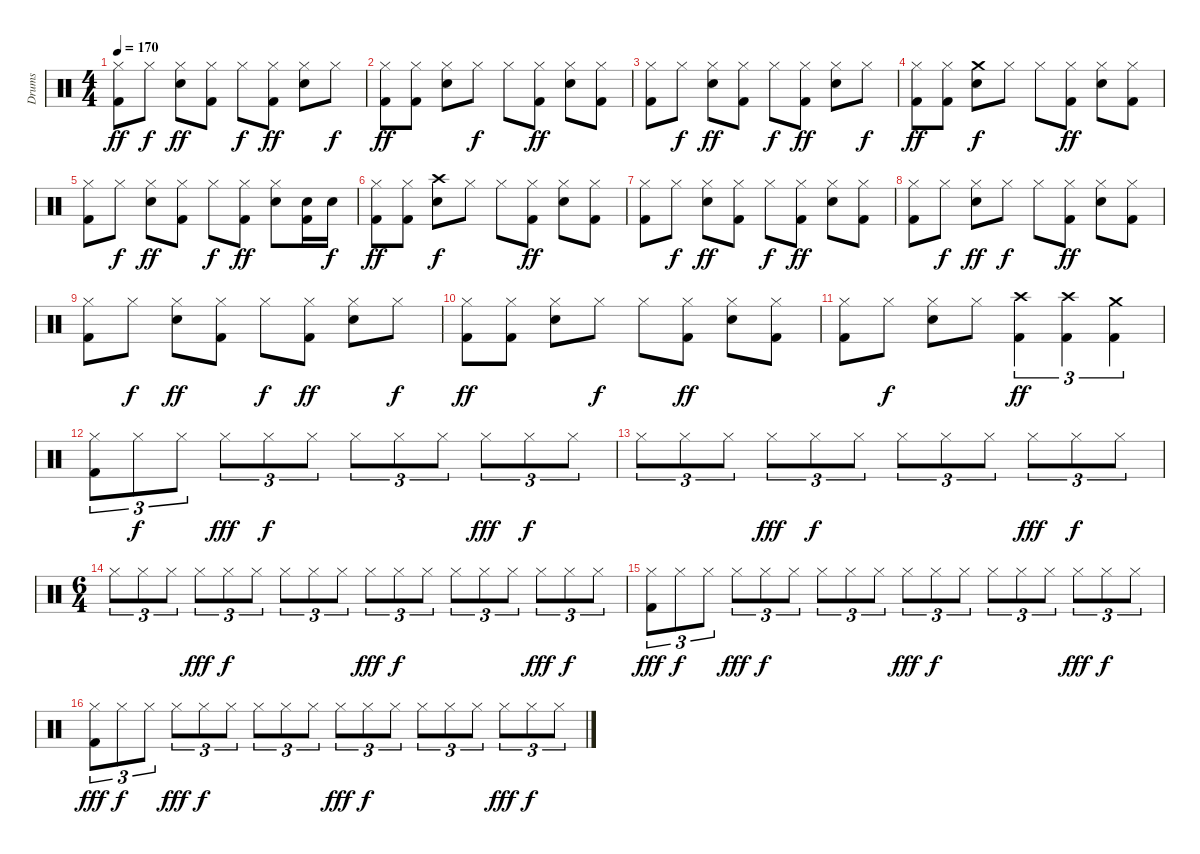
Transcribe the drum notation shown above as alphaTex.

\track ("Drums" "Drums") {instrument percussion}
\staff {score}
\articulation defaults
\ts (4 4)
\tempo 170
\clef neutral
\ks c
("Kick (hit) 2" "Hi-Hat (closed)").8{dy ff} "Hi-Hat (closed)".8{dy f} ("Snare (hit) 2" "Hi-Hat (closed)").8{dy ff} ("Kick (hit) 2" "Hi-Hat (closed)").8 "Hi-Hat (closed)".8{dy f} ("Kick (hit) 2" "Hi-Hat (closed)").8{dy ff} ("Snare (hit) 2" "Hi-Hat (closed)").8 "Hi-Hat (closed)".8{dy f} |
("Kick (hit) 2" "Hi-Hat (closed)").8{dy ff} ("Kick (hit) 2" "Hi-Hat (closed)").8 ("Snare (hit) 2" "Hi-Hat (closed)").8 "Hi-Hat (closed)".8{dy f} "Hi-Hat (closed)".8 ("Kick (hit) 2" "Hi-Hat (closed)").8{dy ff} ("Snare (hit) 2" "Hi-Hat (closed)").8 ("Kick (hit) 2" "Hi-Hat (closed)").8 |
("Kick (hit) 2" "Hi-Hat (closed)").8 "Hi-Hat (closed)".8{dy f} ("Snare (hit) 2" "Hi-Hat (closed)").8{dy ff} ("Kick (hit) 2" "Hi-Hat (closed)").8 "Hi-Hat (closed)".8{dy f} ("Kick (hit) 2" "Hi-Hat (closed)").8{dy ff} ("Snare (hit) 2" "Hi-Hat (closed)").8 "Hi-Hat (closed)".8{dy f} |
("Kick (hit) 2" "Hi-Hat (closed)").8{dy ff} ("Kick (hit) 2" "Hi-Hat (closed)").8 ("Crash medium (hit)" "Snare (hit) 2").8{dy f} "Hi-Hat (closed)".8 "Hi-Hat (closed)".8 ("Kick (hit) 2" "Hi-Hat (closed)").8{dy ff} ("Snare (hit) 2" "Hi-Hat (closed)").8 ("Kick (hit) 2" "Hi-Hat (closed)").8 |
("Kick (hit) 2" "Hi-Hat (closed)").8 "Hi-Hat (closed)".8{dy f} ("Snare (hit) 2" "Hi-Hat (closed)").8{dy ff} ("Kick (hit) 2" "Hi-Hat (closed)").8 "Hi-Hat (closed)".8{dy f} ("Kick (hit) 2" "Hi-Hat (closed)").8{dy ff} ("Snare (hit) 2" "Hi-Hat (closed)").8 ("Snare (hit) 2" "Kick (hit) 2").16 "Snare (hit) 2".16{dy f} |
("Kick (hit) 2" "Hi-Hat (closed)").8{dy ff} ("Kick (hit) 2" "Hi-Hat (closed)").8 ("Crash high (hit)" "Snare (hit) 2").8{dy f} "Hi-Hat (closed)".8 "Hi-Hat (closed)".8 ("Kick (hit) 2" "Hi-Hat (closed)").8{dy ff} ("Snare (hit) 2" "Hi-Hat (closed)").8 ("Kick (hit) 2" "Hi-Hat (closed)").8 |
("Kick (hit) 2" "Hi-Hat (closed)").8 "Hi-Hat (closed)".8{dy f} ("Snare (hit) 2" "Hi-Hat (closed)").8{dy ff} ("Kick (hit) 2" "Hi-Hat (closed)").8 "Hi-Hat (closed)".8{dy f} ("Kick (hit) 2" "Hi-Hat (closed)").8{dy ff} ("Snare (hit) 2" "Hi-Hat (closed)").8 ("Kick (hit) 2" "Hi-Hat (closed)").8 |
("Kick (hit) 2" "Hi-Hat (closed)").8 "Hi-Hat (closed)".8{dy f} ("Snare (hit) 2" "Hi-Hat (closed)").8{dy ff} "Hi-Hat (closed)".8{dy f} "Hi-Hat (closed)".8 ("Kick (hit) 2" "Hi-Hat (closed)").8{dy ff} ("Snare (hit) 2" "Hi-Hat (closed)").8 ("Kick (hit) 2" "Hi-Hat (closed)").8 |
("Kick (hit) 2" "Hi-Hat (closed)").8 "Hi-Hat (closed)".8{dy f} ("Snare (hit) 2" "Hi-Hat (closed)").8{dy ff} ("Kick (hit) 2" "Hi-Hat (closed)").8 "Hi-Hat (closed)".8{dy f} ("Kick (hit) 2" "Hi-Hat (closed)").8{dy ff} ("Snare (hit) 2" "Hi-Hat (closed)").8 "Hi-Hat (closed)".8{dy f} |
("Kick (hit) 2" "Hi-Hat (closed)").8{dy ff} ("Kick (hit) 2" "Hi-Hat (closed)").8 ("Snare (hit) 2" "Hi-Hat (closed)").8 "Hi-Hat (closed)".8{dy f} "Hi-Hat (closed)".8 ("Kick (hit) 2" "Hi-Hat (closed)").8{dy ff} ("Snare (hit) 2" "Hi-Hat (closed)").8 ("Kick (hit) 2" "Hi-Hat (closed)").8 |
("Hi-Hat (closed)" "Kick (hit) 2").8 "Hi-Hat (closed)".8{dy f} ("Snare (hit) 2" "Hi-Hat (closed)").8 "Hi-Hat (closed)".8 ("Crash high (hit)" "Kick (hit) 2").4{tu (3 2) dy ff} ("Crash high (hit)" "Kick (hit) 2").4{tu (3 2)} ("Crash medium (hit)" "Kick (hit) 2").4{tu (3 2)} |
("Hi-Hat (closed)" "Kick (hit) 2").8{tu (3 2)} "Hi-Hat (closed)".8{tu (3 2) dy f} "Hi-Hat (closed)".8{tu (3 2)} "Hi-Hat (closed)".8{tu (3 2) dy fff} "Hi-Hat (closed)".8{tu (3 2) dy f} "Hi-Hat (closed)".8{tu (3 2)} "Hi-Hat (closed)".8{tu (3 2)} "Hi-Hat (closed)".8{tu (3 2)} "Hi-Hat (closed)".8{tu (3 2)} "Hi-Hat (closed)".8{tu (3 2) dy fff} "Hi-Hat (closed)".8{tu (3 2) dy f} "Hi-Hat (closed)".8{tu (3 2)} |
"Hi-Hat (closed)".8{tu (3 2)} "Hi-Hat (closed)".8{tu (3 2)} "Hi-Hat (closed)".8{tu (3 2)} "Hi-Hat (closed)".8{tu (3 2) dy fff} "Hi-Hat (closed)".8{tu (3 2) dy f} "Hi-Hat (closed)".8{tu (3 2)} "Hi-Hat (closed)".8{tu (3 2)} "Hi-Hat (closed)".8{tu (3 2)} "Hi-Hat (closed)".8{tu (3 2)} "Hi-Hat (closed)".8{tu (3 2) dy fff} "Hi-Hat (closed)".8{tu (3 2) dy f} "Hi-Hat (closed)".8{tu (3 2)} |
\ts (6 4)
"Hi-Hat (closed)".8{tu (3 2)} "Hi-Hat (closed)".8{tu (3 2)} "Hi-Hat (closed)".8{tu (3 2)} "Hi-Hat (closed)".8{tu (3 2) dy fff} "Hi-Hat (closed)".8{tu (3 2) dy f} "Hi-Hat (closed)".8{tu (3 2)} "Hi-Hat (closed)".8{tu (3 2)} "Hi-Hat (closed)".8{tu (3 2)} "Hi-Hat (closed)".8{tu (3 2)} "Hi-Hat (closed)".8{tu (3 2) dy fff} "Hi-Hat (closed)".8{tu (3 2) dy f} "Hi-Hat (closed)".8{tu (3 2)} "Hi-Hat (closed)".8{tu (3 2)} "Hi-Hat (closed)".8{tu (3 2)} "Hi-Hat (closed)".8{tu (3 2)} "Hi-Hat (closed)".8{tu (3 2) dy fff} "Hi-Hat (closed)".8{tu (3 2) dy f} "Hi-Hat (closed)".8{tu (3 2)} |
("Kick (hit) 2" "Hi-Hat (closed)").8{tu (3 2) dy fff} "Hi-Hat (closed)".8{tu (3 2) dy f} "Hi-Hat (closed)".8{tu (3 2)} "Hi-Hat (closed)".8{tu (3 2) dy fff} "Hi-Hat (closed)".8{tu (3 2) dy f} "Hi-Hat (closed)".8{tu (3 2)} "Hi-Hat (closed)".8{tu (3 2)} "Hi-Hat (closed)".8{tu (3 2)} "Hi-Hat (closed)".8{tu (3 2)} "Hi-Hat (closed)".8{tu (3 2) dy fff} "Hi-Hat (closed)".8{tu (3 2) dy f} "Hi-Hat (closed)".8{tu (3 2)} "Hi-Hat (closed)".8{tu (3 2)} "Hi-Hat (closed)".8{tu (3 2)} "Hi-Hat (closed)".8{tu (3 2)} "Hi-Hat (closed)".8{tu (3 2) dy fff} "Hi-Hat (closed)".8{tu (3 2) dy f} "Hi-Hat (closed)".8{tu (3 2)} |
("Kick (hit) 2" "Hi-Hat (closed)").8{tu (3 2) dy fff} "Hi-Hat (closed)".8{tu (3 2) dy f} "Hi-Hat (closed)".8{tu (3 2)} "Hi-Hat (closed)".8{tu (3 2) dy fff} "Hi-Hat (closed)".8{tu (3 2) dy f} "Hi-Hat (closed)".8{tu (3 2)} "Hi-Hat (closed)".8{tu (3 2)} "Hi-Hat (closed)".8{tu (3 2)} "Hi-Hat (closed)".8{tu (3 2)} "Hi-Hat (closed)".8{tu (3 2) dy fff} "Hi-Hat (closed)".8{tu (3 2) dy f} "Hi-Hat (closed)".8{tu (3 2)} "Hi-Hat (closed)".8{tu (3 2)} "Hi-Hat (closed)".8{tu (3 2)} "Hi-Hat (closed)".8{tu (3 2)} "Hi-Hat (closed)".8{tu (3 2) dy fff} "Hi-Hat (closed)".8{tu (3 2) dy f} "Hi-Hat (closed)".8{tu (3 2)}
